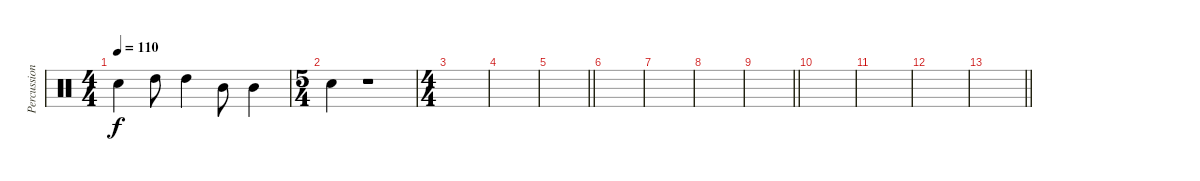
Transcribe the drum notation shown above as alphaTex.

\track ("Percussion" "Percussion") {instrument percussion}
\staff {score}
\articulation defaults
\ts (4 4)
\tempo 110
\clef neutral
\ks c "Electric Snare (hit)".4{dy f} "High Tom (hit)".8 "High Tom (hit)".4 "Mid Tom (hit)".8 "Mid Tom (hit)".4
|
\ts (5 4)
"Snare (hit) 2".4 r.1 |
\ts (4 4)
|
|
\barLineRight lightlight
|
|
|
|
\barLineRight lightlight
|
|
|
|
\barLineRight lightlight
